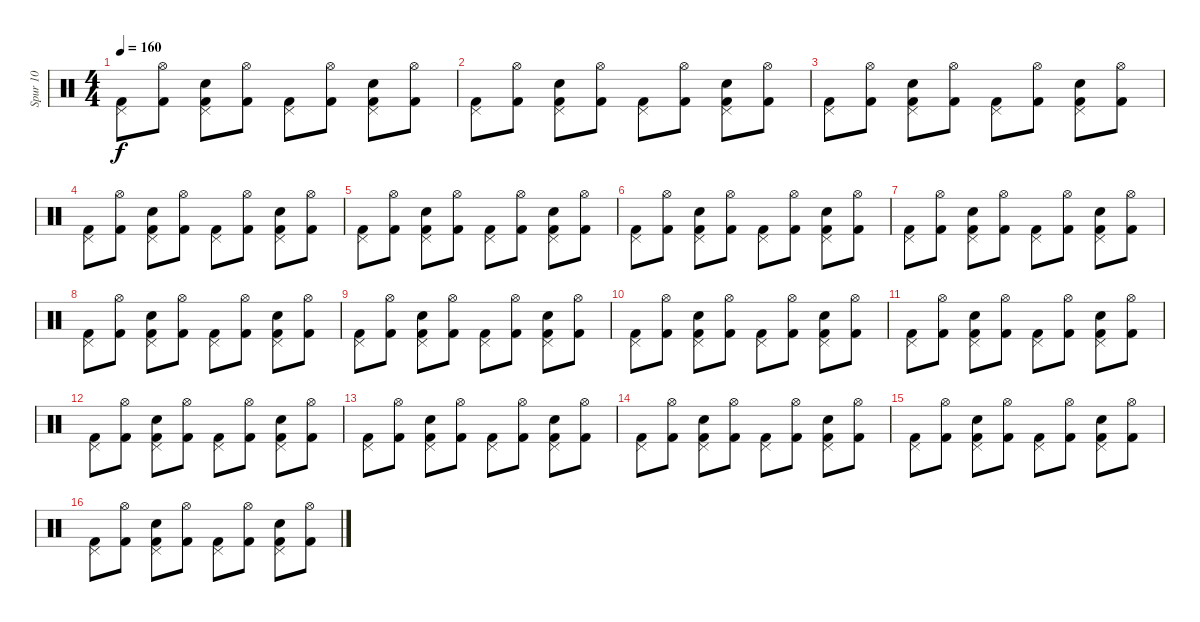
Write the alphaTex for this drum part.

\track ("Spur 10" "Spur 10") {instrument percussion}
\staff {score}
\articulation defaults
\ts (4 4)
\tempo 160
\clef neutral
\ks c
("Kick (hit) 2" "Pedal Hi-Hat (hit)").8{dy f} ("Hi-Hat (open)" "Kick (hit) 2").8 ("Pedal Hi-Hat (hit)" "Snare (hit) 2" "Kick (hit) 2").8 ("Kick (hit) 2" "Hi-Hat (open)").8 ("Kick (hit) 2" "Pedal Hi-Hat (hit)").8 ("Kick (hit) 2" "Hi-Hat (open)").8 ("Snare (hit) 2" "Pedal Hi-Hat (hit)" "Kick (hit) 2").8 ("Kick (hit) 2" "Hi-Hat (open)").8 |
("Pedal Hi-Hat (hit)" "Kick (hit) 2").8 ("Kick (hit) 2" "Hi-Hat (open)").8 ("Snare (hit) 2" "Pedal Hi-Hat (hit)" "Kick (hit) 2").8 ("Kick (hit) 2" "Hi-Hat (open)").8 ("Pedal Hi-Hat (hit)" "Kick (hit) 2").8 ("Hi-Hat (open)" "Kick (hit) 2").8 ("Pedal Hi-Hat (hit)" "Kick (hit) 2" "Snare (hit) 2").8 ("Hi-Hat (open)" "Kick (hit) 2").8 |
("Kick (hit) 2" "Pedal Hi-Hat (hit)").8 ("Hi-Hat (open)" "Kick (hit) 2").8 ("Snare (hit) 2" "Kick (hit) 2" "Pedal Hi-Hat (hit)").8 ("Kick (hit) 2" "Hi-Hat (open)").8 ("Pedal Hi-Hat (hit)" "Kick (hit) 2").8 ("Kick (hit) 2" "Hi-Hat (open)").8 ("Pedal Hi-Hat (hit)" "Snare (hit) 2" "Kick (hit) 2").8 ("Kick (hit) 2" "Hi-Hat (open)").8 |
("Pedal Hi-Hat (hit)" "Kick (hit) 2").8 ("Kick (hit) 2" "Hi-Hat (open)").8 ("Pedal Hi-Hat (hit)" "Kick (hit) 2" "Snare (hit) 2").8 ("Kick (hit) 2" "Hi-Hat (open)").8 ("Pedal Hi-Hat (hit)" "Kick (hit) 2").8 ("Hi-Hat (open)" "Kick (hit) 2").8 ("Kick (hit) 2" "Snare (hit) 2" "Pedal Hi-Hat (hit)").8 ("Kick (hit) 2" "Hi-Hat (open)").8 |
("Kick (hit) 2" "Pedal Hi-Hat (hit)").8 ("Kick (hit) 2" "Hi-Hat (open)").8 ("Pedal Hi-Hat (hit)" "Snare (hit) 2" "Kick (hit) 2").8 ("Kick (hit) 2" "Hi-Hat (open)").8 ("Kick (hit) 2" "Pedal Hi-Hat (hit)").8 ("Hi-Hat (open)" "Kick (hit) 2").8 ("Kick (hit) 2" "Pedal Hi-Hat (hit)" "Snare (hit) 2").8 ("Kick (hit) 2" "Hi-Hat (open)").8 |
("Pedal Hi-Hat (hit)" "Kick (hit) 2").8 ("Hi-Hat (open)" "Kick (hit) 2").8 ("Kick (hit) 2" "Snare (hit) 2" "Pedal Hi-Hat (hit)").8 ("Kick (hit) 2" "Hi-Hat (open)").8 ("Pedal Hi-Hat (hit)" "Kick (hit) 2").8 ("Kick (hit) 2" "Hi-Hat (open)").8 ("Kick (hit) 2" "Snare (hit) 2" "Pedal Hi-Hat (hit)").8 ("Kick (hit) 2" "Hi-Hat (open)").8 |
("Pedal Hi-Hat (hit)" "Kick (hit) 2").8 ("Hi-Hat (open)" "Kick (hit) 2").8 ("Snare (hit) 2" "Kick (hit) 2" "Pedal Hi-Hat (hit)").8 ("Hi-Hat (open)" "Kick (hit) 2").8 ("Pedal Hi-Hat (hit)" "Kick (hit) 2").8 ("Kick (hit) 2" "Hi-Hat (open)").8 ("Pedal Hi-Hat (hit)" "Snare (hit) 2" "Kick (hit) 2").8 ("Kick (hit) 2" "Hi-Hat (open)").8 |
("Kick (hit) 2" "Pedal Hi-Hat (hit)").8 ("Hi-Hat (open)" "Kick (hit) 2").8 ("Snare (hit) 2" "Pedal Hi-Hat (hit)" "Kick (hit) 2").8 ("Hi-Hat (open)" "Kick (hit) 2").8 ("Pedal Hi-Hat (hit)" "Kick (hit) 2").8 ("Hi-Hat (open)" "Kick (hit) 2").8 ("Pedal Hi-Hat (hit)" "Snare (hit) 2" "Kick (hit) 2").8 ("Kick (hit) 2" "Hi-Hat (open)").8 |
("Pedal Hi-Hat (hit)" "Kick (hit) 2").8 ("Hi-Hat (open)" "Kick (hit) 2").8 ("Snare (hit) 2" "Kick (hit) 2" "Pedal Hi-Hat (hit)").8 ("Kick (hit) 2" "Hi-Hat (open)").8 ("Pedal Hi-Hat (hit)" "Kick (hit) 2").8 ("Hi-Hat (open)" "Kick (hit) 2").8 ("Snare (hit) 2" "Pedal Hi-Hat (hit)" "Kick (hit) 2").8 ("Hi-Hat (open)" "Kick (hit) 2").8 |
("Pedal Hi-Hat (hit)" "Kick (hit) 2").8 ("Hi-Hat (open)" "Kick (hit) 2").8 ("Kick (hit) 2" "Snare (hit) 2" "Pedal Hi-Hat (hit)").8 ("Hi-Hat (open)" "Kick (hit) 2").8 ("Kick (hit) 2" "Pedal Hi-Hat (hit)").8 ("Kick (hit) 2" "Hi-Hat (open)").8 ("Snare (hit) 2" "Pedal Hi-Hat (hit)" "Kick (hit) 2").8 ("Kick (hit) 2" "Hi-Hat (open)").8 |
("Pedal Hi-Hat (hit)" "Kick (hit) 2").8 ("Hi-Hat (open)" "Kick (hit) 2").8 ("Pedal Hi-Hat (hit)" "Kick (hit) 2" "Snare (hit) 2").8 ("Hi-Hat (open)" "Kick (hit) 2").8 ("Kick (hit) 2" "Pedal Hi-Hat (hit)").8 ("Hi-Hat (open)" "Kick (hit) 2").8 ("Snare (hit) 2" "Pedal Hi-Hat (hit)" "Kick (hit) 2").8 ("Kick (hit) 2" "Hi-Hat (open)").8 |
("Kick (hit) 2" "Pedal Hi-Hat (hit)").8 ("Hi-Hat (open)" "Kick (hit) 2").8 ("Kick (hit) 2" "Snare (hit) 2" "Pedal Hi-Hat (hit)").8 ("Kick (hit) 2" "Hi-Hat (open)").8 ("Pedal Hi-Hat (hit)" "Kick (hit) 2").8 ("Kick (hit) 2" "Hi-Hat (open)").8 ("Kick (hit) 2" "Snare (hit) 2" "Pedal Hi-Hat (hit)").8 ("Kick (hit) 2" "Hi-Hat (open)").8 |
("Kick (hit) 2" "Pedal Hi-Hat (hit)").8 ("Kick (hit) 2" "Hi-Hat (open)").8 ("Kick (hit) 2" "Snare (hit) 2" "Pedal Hi-Hat (hit)").8 ("Hi-Hat (open)" "Kick (hit) 2").8 ("Kick (hit) 2" "Pedal Hi-Hat (hit)").8 ("Kick (hit) 2" "Hi-Hat (open)").8 ("Kick (hit) 2" "Snare (hit) 2" "Pedal Hi-Hat (hit)").8 ("Kick (hit) 2" "Hi-Hat (open)").8 |
("Kick (hit) 2" "Pedal Hi-Hat (hit)").8 ("Hi-Hat (open)" "Kick (hit) 2").8 ("Pedal Hi-Hat (hit)" "Snare (hit) 2" "Kick (hit) 2").8 ("Hi-Hat (open)" "Kick (hit) 2").8 ("Kick (hit) 2" "Pedal Hi-Hat (hit)").8 ("Kick (hit) 2" "Hi-Hat (open)").8 ("Snare (hit) 2" "Kick (hit) 2" "Pedal Hi-Hat (hit)").8 ("Kick (hit) 2" "Hi-Hat (open)").8 |
("Kick (hit) 2" "Pedal Hi-Hat (hit)").8 ("Hi-Hat (open)" "Kick (hit) 2").8 ("Kick (hit) 2" "Snare (hit) 2" "Pedal Hi-Hat (hit)").8 ("Kick (hit) 2" "Hi-Hat (open)").8 ("Pedal Hi-Hat (hit)" "Kick (hit) 2").8 ("Hi-Hat (open)" "Kick (hit) 2").8 ("Pedal Hi-Hat (hit)" "Snare (hit) 2" "Kick (hit) 2").8 ("Kick (hit) 2" "Hi-Hat (open)").8 |
("Kick (hit) 2" "Pedal Hi-Hat (hit)").8 ("Kick (hit) 2" "Hi-Hat (open)").8 ("Snare (hit) 2" "Pedal Hi-Hat (hit)" "Kick (hit) 2").8 ("Kick (hit) 2" "Hi-Hat (open)").8 ("Kick (hit) 2" "Pedal Hi-Hat (hit)").8 ("Hi-Hat (open)" "Kick (hit) 2").8 ("Kick (hit) 2" "Pedal Hi-Hat (hit)" "Snare (hit) 2").8 ("Kick (hit) 2" "Hi-Hat (open)").8
